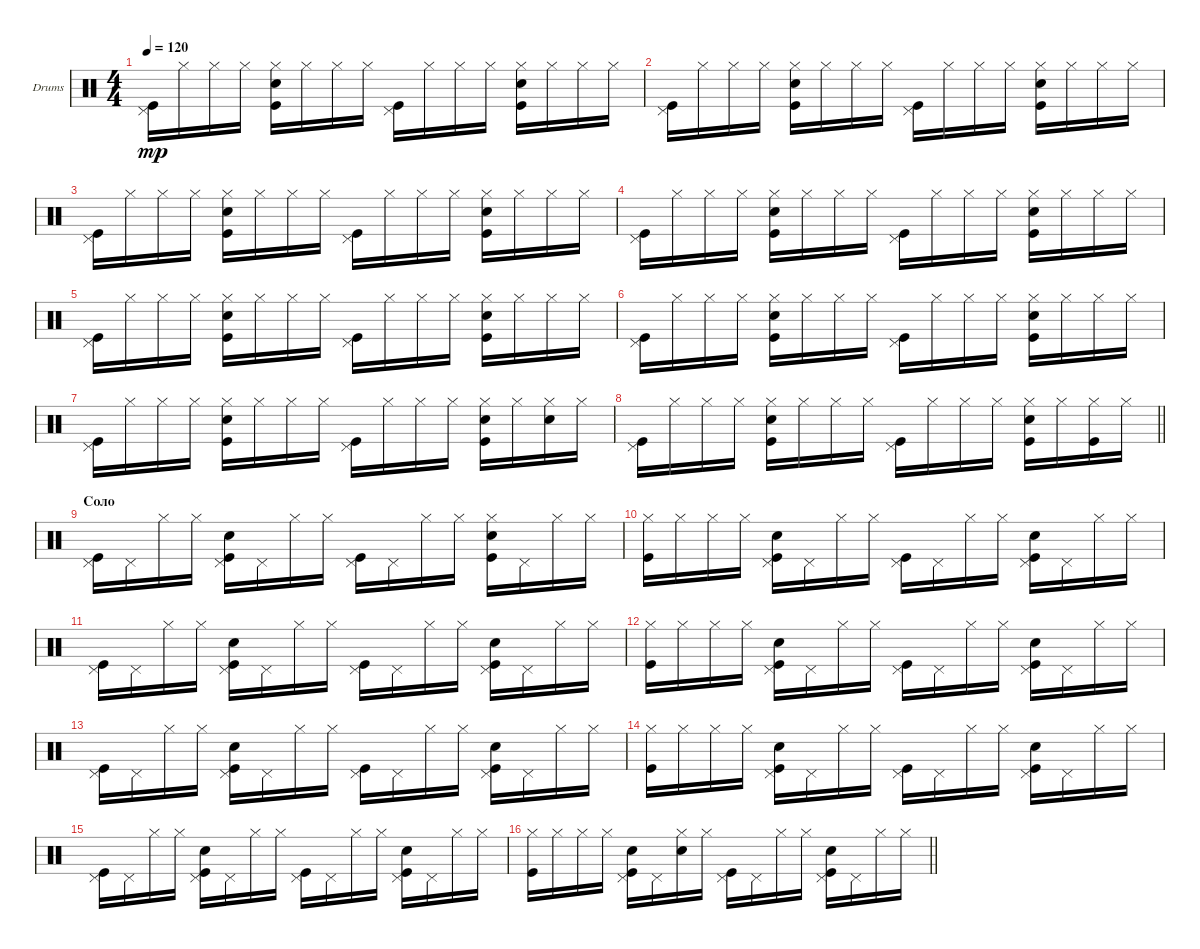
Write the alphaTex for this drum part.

\bracketExtendMode groupsimilarinstruments
\firstSystemTrackNameOrientation horizontal
\otherSystemsTrackNameOrientation horizontal
\track ("Ударные" "Drums") {instrument percussion}
\staff {score}
\articulation defaults
\ts (4 4)
\tempo 120
\clef neutral
\ks c
("Pedal Hi-Hat (hit)" "Kick (hit)").16{dy mp} "Hi-Hat (closed)".16 "Hi-Hat (closed)".16 "Hi-Hat (closed)".16 ("Hi-Hat (closed)" "Snare (hit) 2" "Kick (hit)").16 "Hi-Hat (closed)".16 "Hi-Hat (closed)".16 "Hi-Hat (closed)".16 ("Pedal Hi-Hat (hit)" "Kick (hit)").16 "Hi-Hat (closed)".16 "Hi-Hat (closed)".16 "Hi-Hat (closed)".16 ("Hi-Hat (closed)" "Snare (hit) 2" "Kick (hit)").16 "Hi-Hat (closed)".16 "Hi-Hat (closed)".16 "Hi-Hat (closed)".16 |
("Pedal Hi-Hat (hit)" "Kick (hit)").16 "Hi-Hat (closed)".16 "Hi-Hat (closed)".16 "Hi-Hat (closed)".16 ("Hi-Hat (closed)" "Snare (hit) 2" "Kick (hit)").16 "Hi-Hat (closed)".16 "Hi-Hat (closed)".16 "Hi-Hat (closed)".16 ("Pedal Hi-Hat (hit)" "Kick (hit)").16 "Hi-Hat (closed)".16 "Hi-Hat (closed)".16 "Hi-Hat (closed)".16 ("Hi-Hat (closed)" "Snare (hit) 2" "Kick (hit)").16 "Hi-Hat (closed)".16 "Hi-Hat (closed)".16 "Hi-Hat (closed)".16 |
("Pedal Hi-Hat (hit)" "Kick (hit)").16 "Hi-Hat (closed)".16 "Hi-Hat (closed)".16 "Hi-Hat (closed)".16 ("Hi-Hat (closed)" "Snare (hit) 2" "Kick (hit)").16 "Hi-Hat (closed)".16 "Hi-Hat (closed)".16 "Hi-Hat (closed)".16 ("Pedal Hi-Hat (hit)" "Kick (hit)").16 "Hi-Hat (closed)".16 "Hi-Hat (closed)".16 "Hi-Hat (closed)".16 ("Hi-Hat (closed)" "Snare (hit) 2" "Kick (hit)").16 "Hi-Hat (closed)".16 "Hi-Hat (closed)".16 "Hi-Hat (closed)".16 |
("Pedal Hi-Hat (hit)" "Kick (hit)").16 "Hi-Hat (closed)".16 "Hi-Hat (closed)".16 "Hi-Hat (closed)".16 ("Hi-Hat (closed)" "Snare (hit) 2" "Kick (hit)").16 "Hi-Hat (closed)".16 "Hi-Hat (closed)".16 "Hi-Hat (closed)".16 ("Pedal Hi-Hat (hit)" "Kick (hit)").16 "Hi-Hat (closed)".16 "Hi-Hat (closed)".16 "Hi-Hat (closed)".16 ("Hi-Hat (closed)" "Snare (hit) 2" "Kick (hit)").16 "Hi-Hat (closed)".16 "Hi-Hat (closed)".16 "Hi-Hat (closed)".16 |
("Pedal Hi-Hat (hit)" "Kick (hit)").16 "Hi-Hat (closed)".16 "Hi-Hat (closed)".16 "Hi-Hat (closed)".16 ("Hi-Hat (closed)" "Snare (hit) 2" "Kick (hit)").16 "Hi-Hat (closed)".16 "Hi-Hat (closed)".16 "Hi-Hat (closed)".16 ("Pedal Hi-Hat (hit)" "Kick (hit)").16 "Hi-Hat (closed)".16 "Hi-Hat (closed)".16 "Hi-Hat (closed)".16 ("Hi-Hat (closed)" "Snare (hit) 2" "Kick (hit)").16 "Hi-Hat (closed)".16 "Hi-Hat (closed)".16 "Hi-Hat (closed)".16 |
("Pedal Hi-Hat (hit)" "Kick (hit)").16 "Hi-Hat (closed)".16 "Hi-Hat (closed)".16 "Hi-Hat (closed)".16 ("Hi-Hat (closed)" "Snare (hit) 2" "Kick (hit)").16 "Hi-Hat (closed)".16 "Hi-Hat (closed)".16 "Hi-Hat (closed)".16 ("Pedal Hi-Hat (hit)" "Kick (hit)").16 "Hi-Hat (closed)".16 "Hi-Hat (closed)".16 "Hi-Hat (closed)".16 ("Hi-Hat (closed)" "Snare (hit) 2" "Kick (hit)").16 "Hi-Hat (closed)".16 "Hi-Hat (closed)".16 "Hi-Hat (closed)".16 |
("Pedal Hi-Hat (hit)" "Kick (hit)").16 "Hi-Hat (closed)".16 "Hi-Hat (closed)".16 "Hi-Hat (closed)".16 ("Hi-Hat (closed)" "Snare (hit) 2" "Kick (hit)").16 "Hi-Hat (closed)".16 "Hi-Hat (closed)".16 "Hi-Hat (closed)".16 ("Pedal Hi-Hat (hit)" "Kick (hit)").16 "Hi-Hat (closed)".16 "Hi-Hat (closed)".16 "Hi-Hat (closed)".16 ("Hi-Hat (closed)" "Snare (hit) 2" "Kick (hit)").16 "Hi-Hat (closed)".16 ("Hi-Hat (closed)" "Snare (hit) 2").16 "Hi-Hat (closed)".16 |
\barLineRight lightlight
("Pedal Hi-Hat (hit)" "Kick (hit)").16 "Hi-Hat (closed)".16 "Hi-Hat (closed)".16 "Hi-Hat (closed)".16 ("Hi-Hat (closed)" "Snare (hit) 2" "Kick (hit)").16 "Hi-Hat (closed)".16 "Hi-Hat (closed)".16 "Hi-Hat (closed)".16 ("Pedal Hi-Hat (hit)" "Kick (hit)").16 "Hi-Hat (closed)".16 "Hi-Hat (closed)".16 "Hi-Hat (closed)".16 ("Hi-Hat (closed)" "Snare (hit) 2" "Kick (hit)").16 "Hi-Hat (closed)".16 ("Hi-Hat (closed)" "Kick (hit)").16 "Hi-Hat (closed)".16 |
\section ("" "Соло")
("Pedal Hi-Hat (hit)" "Kick (hit)").16 "Pedal Hi-Hat (hit)".16 "Hi-Hat (closed)".16 "Hi-Hat (closed)".16 ("Pedal Hi-Hat (hit)" "Snare (hit) 2" "Kick (hit)").16 "Pedal Hi-Hat (hit)".16 "Hi-Hat (closed)".16 "Hi-Hat (closed)".16 ("Pedal Hi-Hat (hit)" "Kick (hit)").16 "Pedal Hi-Hat (hit)".16 "Hi-Hat (closed)".16 "Hi-Hat (closed)".16 ("Hi-Hat (closed)" "Snare (hit) 2" "Kick (hit)").16 "Pedal Hi-Hat (hit)".16 "Hi-Hat (closed)".16 "Hi-Hat (closed)".16 |
("Hi-Hat (closed)" "Kick (hit)").16 "Hi-Hat (closed)".16 "Hi-Hat (closed)".16 "Hi-Hat (closed)".16 ("Pedal Hi-Hat (hit)" "Snare (hit) 2" "Kick (hit)").16 "Pedal Hi-Hat (hit)".16 "Hi-Hat (closed)".16 "Hi-Hat (closed)".16 ("Pedal Hi-Hat (hit)" "Kick (hit)").16 "Pedal Hi-Hat (hit)".16 "Hi-Hat (closed)".16 "Hi-Hat (closed)".16 ("Pedal Hi-Hat (hit)" "Snare (hit) 2" "Kick (hit)").16 "Pedal Hi-Hat (hit)".16 "Hi-Hat (closed)".16 "Hi-Hat (closed)".16 |
("Pedal Hi-Hat (hit)" "Kick (hit)").16 "Pedal Hi-Hat (hit)".16 "Hi-Hat (closed)".16 "Hi-Hat (closed)".16 ("Pedal Hi-Hat (hit)" "Snare (hit) 2" "Kick (hit)").16 "Pedal Hi-Hat (hit)".16 "Hi-Hat (closed)".16 "Hi-Hat (closed)".16 ("Pedal Hi-Hat (hit)" "Kick (hit)").16 "Pedal Hi-Hat (hit)".16 "Hi-Hat (closed)".16 "Hi-Hat (closed)".16 ("Pedal Hi-Hat (hit)" "Snare (hit) 2" "Kick (hit)").16 "Pedal Hi-Hat (hit)".16 "Hi-Hat (closed)".16 "Hi-Hat (closed)".16 |
("Hi-Hat (closed)" "Kick (hit)").16 "Hi-Hat (closed)".16 "Hi-Hat (closed)".16 "Hi-Hat (closed)".16 ("Pedal Hi-Hat (hit)" "Snare (hit) 2" "Kick (hit)").16 "Pedal Hi-Hat (hit)".16 "Hi-Hat (closed)".16 "Hi-Hat (closed)".16 ("Pedal Hi-Hat (hit)" "Kick (hit)").16 "Pedal Hi-Hat (hit)".16 "Hi-Hat (closed)".16 "Hi-Hat (closed)".16 ("Pedal Hi-Hat (hit)" "Snare (hit) 2" "Kick (hit)").16 "Pedal Hi-Hat (hit)".16 "Hi-Hat (closed)".16 "Hi-Hat (closed)".16 |
("Pedal Hi-Hat (hit)" "Kick (hit)").16 "Pedal Hi-Hat (hit)".16 "Hi-Hat (closed)".16 "Hi-Hat (closed)".16 ("Pedal Hi-Hat (hit)" "Snare (hit) 2" "Kick (hit)").16 "Pedal Hi-Hat (hit)".16 "Hi-Hat (closed)".16 "Hi-Hat (closed)".16 ("Pedal Hi-Hat (hit)" "Kick (hit)").16 "Pedal Hi-Hat (hit)".16 "Hi-Hat (closed)".16 "Hi-Hat (closed)".16 ("Pedal Hi-Hat (hit)" "Snare (hit) 2" "Kick (hit)").16 "Pedal Hi-Hat (hit)".16 "Hi-Hat (closed)".16 "Hi-Hat (closed)".16 |
("Hi-Hat (closed)" "Kick (hit)").16 "Hi-Hat (closed)".16 "Hi-Hat (closed)".16 "Hi-Hat (closed)".16 ("Pedal Hi-Hat (hit)" "Snare (hit) 2" "Kick (hit)").16 "Pedal Hi-Hat (hit)".16 "Hi-Hat (closed)".16 "Hi-Hat (closed)".16 ("Pedal Hi-Hat (hit)" "Kick (hit)").16 "Pedal Hi-Hat (hit)".16 "Hi-Hat (closed)".16 "Hi-Hat (closed)".16 ("Pedal Hi-Hat (hit)" "Snare (hit) 2" "Kick (hit)").16 "Pedal Hi-Hat (hit)".16 "Hi-Hat (closed)".16 "Hi-Hat (closed)".16 |
("Pedal Hi-Hat (hit)" "Kick (hit)").16 "Pedal Hi-Hat (hit)".16 "Hi-Hat (closed)".16 "Hi-Hat (closed)".16 ("Pedal Hi-Hat (hit)" "Snare (hit) 2" "Kick (hit)").16 "Pedal Hi-Hat (hit)".16 "Hi-Hat (closed)".16 "Hi-Hat (closed)".16 ("Pedal Hi-Hat (hit)" "Kick (hit)").16 "Pedal Hi-Hat (hit)".16 "Hi-Hat (closed)".16 "Hi-Hat (closed)".16 ("Pedal Hi-Hat (hit)" "Snare (hit) 2" "Kick (hit)").16 "Pedal Hi-Hat (hit)".16 "Hi-Hat (closed)".16 "Hi-Hat (closed)".16 |
\barLineRight lightlight
("Hi-Hat (closed)" "Kick (hit)").16 "Hi-Hat (closed)".16 "Hi-Hat (closed)".16 "Hi-Hat (closed)".16 ("Pedal Hi-Hat (hit)" "Snare (hit) 2" "Kick (hit)").16 "Pedal Hi-Hat (hit)".16 ("Hi-Hat (closed)" "Snare (hit) 2").16 "Hi-Hat (closed)".16 ("Pedal Hi-Hat (hit)" "Kick (hit)").16 "Pedal Hi-Hat (hit)".16 "Hi-Hat (closed)".16 "Hi-Hat (closed)".16 ("Pedal Hi-Hat (hit)" "Snare (hit) 2" "Kick (hit)").16 "Pedal Hi-Hat (hit)".16 "Hi-Hat (closed)".16 "Hi-Hat (closed)".16
